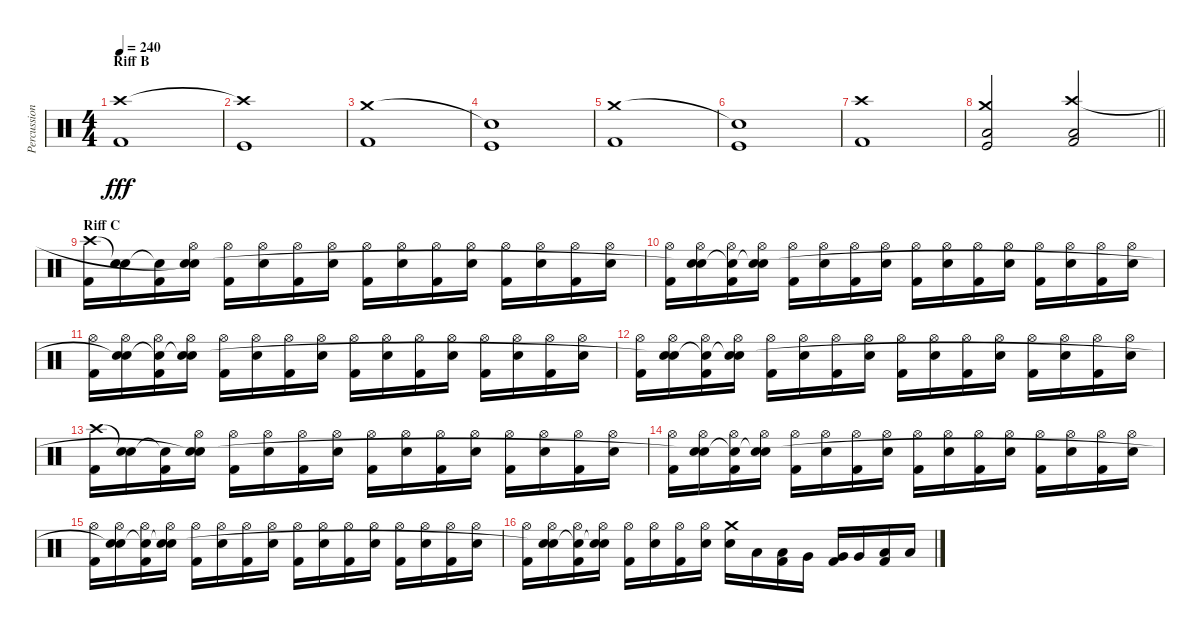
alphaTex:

\track ("Percussion" "Percussion") {instrument percussion}
\staff {score}
\articulation defaults
\ts (4 4)
\section ("" "Riff B")
\tempo 240
\clef neutral
\ks c
("Kick (hit) 2" "Crash high (hit)").1{dy fff} |
("Kick (hit)" "Crash high (hit)"{t}).1 |
("Kick (hit) 2" "Crash medium (hit)").1 |
("Kick (hit)" "Snare (hit)"{t}).1 |
("Kick (hit) 2" "Crash medium (hit)").1 |
("Kick (hit)" "Snare (hit)"{t}).1 |
("Kick (hit) 2" "Crash high (hit)").1 |
\barLineRight lightlight
("Kick (hit)" "Low Floor Tom (hit)" "Crash medium (hit)").2 ("Kick (hit) 2" "Low Floor Tom (hit)" "Crash high (hit)").2 |
\section ("" "Riff C")
("Kick (hit) 2" "Crash high (hit)").16 ("Snare (hit) 2" "Snare (hit)"{t}).16 ("Kick (hit) 2" "Snare (hit)"{t}).16 ("Snare (hit) 2" "Hi-Hat (open)" "Snare (hit)"{t}).16 ("Kick (hit) 2" "Hi-Hat (open)").16 ("Snare (hit) 2" "Hi-Hat (open)").16 ("Kick (hit) 2" "Hi-Hat (open)").16 ("Snare (hit) 2" "Hi-Hat (open)").16 ("Kick (hit) 2" "Hi-Hat (open)").16 ("Snare (hit) 2" "Hi-Hat (open)").16 ("Kick (hit) 2" "Hi-Hat (open)").16 ("Snare (hit) 2" "Hi-Hat (open)").16 ("Kick (hit) 2" "Hi-Hat (open)").16 ("Snare (hit) 2" "Hi-Hat (open)").16 ("Kick (hit) 2" "Hi-Hat (open)").16 ("Snare (hit) 2" "Hi-Hat (open)").16 |
("Kick (hit) 2" "Hi-Hat (open)").16 ("Snare (hit) 2" "Hi-Hat (open)" "Snare (hit)"{t}).16 ("Kick (hit) 2" "Hi-Hat (open)" "Snare (hit)"{t}).16 ("Snare (hit) 2" "Hi-Hat (open)" "Snare (hit)"{t}).16 ("Kick (hit) 2" "Hi-Hat (open)").16 ("Snare (hit) 2" "Hi-Hat (open)").16 ("Kick (hit) 2" "Hi-Hat (open)").16 ("Snare (hit) 2" "Hi-Hat (open)").16 ("Kick (hit) 2" "Hi-Hat (open)").16 ("Snare (hit) 2" "Hi-Hat (open)").16 ("Kick (hit) 2" "Hi-Hat (open)").16 ("Snare (hit) 2" "Hi-Hat (open)").16 ("Kick (hit) 2" "Hi-Hat (open)").16 ("Snare (hit) 2" "Hi-Hat (open)").16 ("Kick (hit) 2" "Hi-Hat (open)").16 ("Snare (hit) 2" "Hi-Hat (open)").16 |
("Kick (hit) 2" "Hi-Hat (open)").16 ("Snare (hit) 2" "Hi-Hat (open)" "Snare (hit)"{t}).16 ("Kick (hit) 2" "Hi-Hat (open)" "Snare (hit)"{t}).16 ("Snare (hit) 2" "Hi-Hat (open)" "Snare (hit)"{t}).16 ("Kick (hit) 2" "Hi-Hat (open)").16 ("Snare (hit) 2" "Hi-Hat (open)").16 ("Kick (hit) 2" "Hi-Hat (open)").16 ("Snare (hit) 2" "Hi-Hat (open)").16 ("Kick (hit) 2" "Hi-Hat (open)").16 ("Snare (hit) 2" "Hi-Hat (open)").16 ("Kick (hit) 2" "Hi-Hat (open)").16 ("Snare (hit) 2" "Hi-Hat (open)").16 ("Kick (hit) 2" "Hi-Hat (open)").16 ("Snare (hit) 2" "Hi-Hat (open)").16 ("Kick (hit) 2" "Hi-Hat (open)").16 ("Snare (hit) 2" "Hi-Hat (open)").16 |
("Kick (hit) 2" "Hi-Hat (open)").16 ("Snare (hit) 2" "Hi-Hat (open)" "Snare (hit)"{t}).16 ("Kick (hit) 2" "Hi-Hat (open)" "Snare (hit)"{t}).16 ("Snare (hit) 2" "Hi-Hat (open)" "Snare (hit)"{t}).16 ("Kick (hit) 2" "Hi-Hat (open)").16 ("Snare (hit) 2" "Hi-Hat (open)").16 ("Kick (hit) 2" "Hi-Hat (open)").16 ("Snare (hit) 2" "Hi-Hat (open)").16 ("Kick (hit) 2" "Hi-Hat (open)").16 ("Snare (hit) 2" "Hi-Hat (open)").16 ("Kick (hit) 2" "Hi-Hat (open)").16 ("Snare (hit) 2" "Hi-Hat (open)").16 ("Kick (hit) 2" "Hi-Hat (open)").16 ("Snare (hit) 2" "Hi-Hat (open)").16 ("Kick (hit) 2" "Hi-Hat (open)").16 ("Snare (hit) 2" "Hi-Hat (open)").16 |
("Kick (hit) 2" "Crash high (hit)").16 ("Snare (hit) 2" "Snare (hit)"{t}).16 ("Kick (hit) 2" "Snare (hit)"{t}).16 ("Snare (hit) 2" "Hi-Hat (open)" "Snare (hit)"{t}).16 ("Kick (hit) 2" "Hi-Hat (open)").16 ("Snare (hit) 2" "Hi-Hat (open)").16 ("Kick (hit) 2" "Hi-Hat (open)").16 ("Snare (hit) 2" "Hi-Hat (open)").16 ("Kick (hit) 2" "Hi-Hat (open)").16 ("Snare (hit) 2" "Hi-Hat (open)").16 ("Kick (hit) 2" "Hi-Hat (open)").16 ("Snare (hit) 2" "Hi-Hat (open)").16 ("Kick (hit) 2" "Hi-Hat (open)").16 ("Snare (hit) 2" "Hi-Hat (open)").16 ("Kick (hit) 2" "Hi-Hat (open)").16 ("Snare (hit) 2" "Hi-Hat (open)").16 |
("Kick (hit) 2" "Hi-Hat (open)").16 ("Snare (hit) 2" "Hi-Hat (open)" "Snare (hit)"{t}).16 ("Kick (hit) 2" "Hi-Hat (open)" "Snare (hit)"{t}).16 ("Snare (hit) 2" "Hi-Hat (open)" "Snare (hit)"{t}).16 ("Kick (hit) 2" "Hi-Hat (open)").16 ("Snare (hit) 2" "Hi-Hat (open)").16 ("Kick (hit) 2" "Hi-Hat (open)").16 ("Snare (hit) 2" "Hi-Hat (open)").16 ("Kick (hit) 2" "Hi-Hat (open)").16 ("Snare (hit) 2" "Hi-Hat (open)").16 ("Kick (hit) 2" "Hi-Hat (open)").16 ("Snare (hit) 2" "Hi-Hat (open)").16 ("Kick (hit) 2" "Hi-Hat (open)").16 ("Snare (hit) 2" "Hi-Hat (open)").16 ("Kick (hit) 2" "Hi-Hat (open)").16 ("Snare (hit) 2" "Hi-Hat (open)").16 |
("Kick (hit) 2" "Hi-Hat (open)").16 ("Snare (hit) 2" "Hi-Hat (open)" "Snare (hit)"{t}).16 ("Kick (hit) 2" "Hi-Hat (open)" "Snare (hit)"{t}).16 ("Snare (hit) 2" "Hi-Hat (open)" "Snare (hit)"{t}).16 ("Kick (hit) 2" "Hi-Hat (open)").16 ("Snare (hit) 2" "Hi-Hat (open)").16 ("Kick (hit) 2" "Hi-Hat (open)").16 ("Snare (hit) 2" "Hi-Hat (open)").16 ("Kick (hit) 2" "Hi-Hat (open)").16 ("Snare (hit) 2" "Hi-Hat (open)").16 ("Kick (hit) 2" "Hi-Hat (open)").16 ("Snare (hit) 2" "Hi-Hat (open)").16 ("Kick (hit) 2" "Hi-Hat (open)").16 ("Snare (hit) 2" "Hi-Hat (open)").16 ("Kick (hit) 2" "Hi-Hat (open)").16 ("Snare (hit) 2" "Hi-Hat (open)").16 |
("Kick (hit) 2" "Hi-Hat (open)").16 ("Snare (hit) 2" "Hi-Hat (open)" "Snare (hit)"{t}).16 ("Kick (hit) 2" "Hi-Hat (open)" "Snare (hit)"{t}).16 ("Snare (hit) 2" "Hi-Hat (open)" "Snare (hit)"{t}).16 ("Kick (hit) 2" "Hi-Hat (open)").16 ("Snare (hit) 2" "Hi-Hat (open)").16 ("Kick (hit) 2" "Hi-Hat (open)").16 ("Snare (hit) 2" "Hi-Hat (open)").16 ("Snare (hit) 2" "Crash medium (hit)").16 "Low Tom (hit)".16 ("Kick (hit) 2" "Low Tom (hit)").16 "Very Low Tom (hit)".16 ("Kick (hit) 2" "Very Low Tom (hit)").16 "Very Low Tom (hit)".16 ("Kick (hit) 2" "Low Floor Tom (hit)").16 "Low Floor Tom (hit)".16
